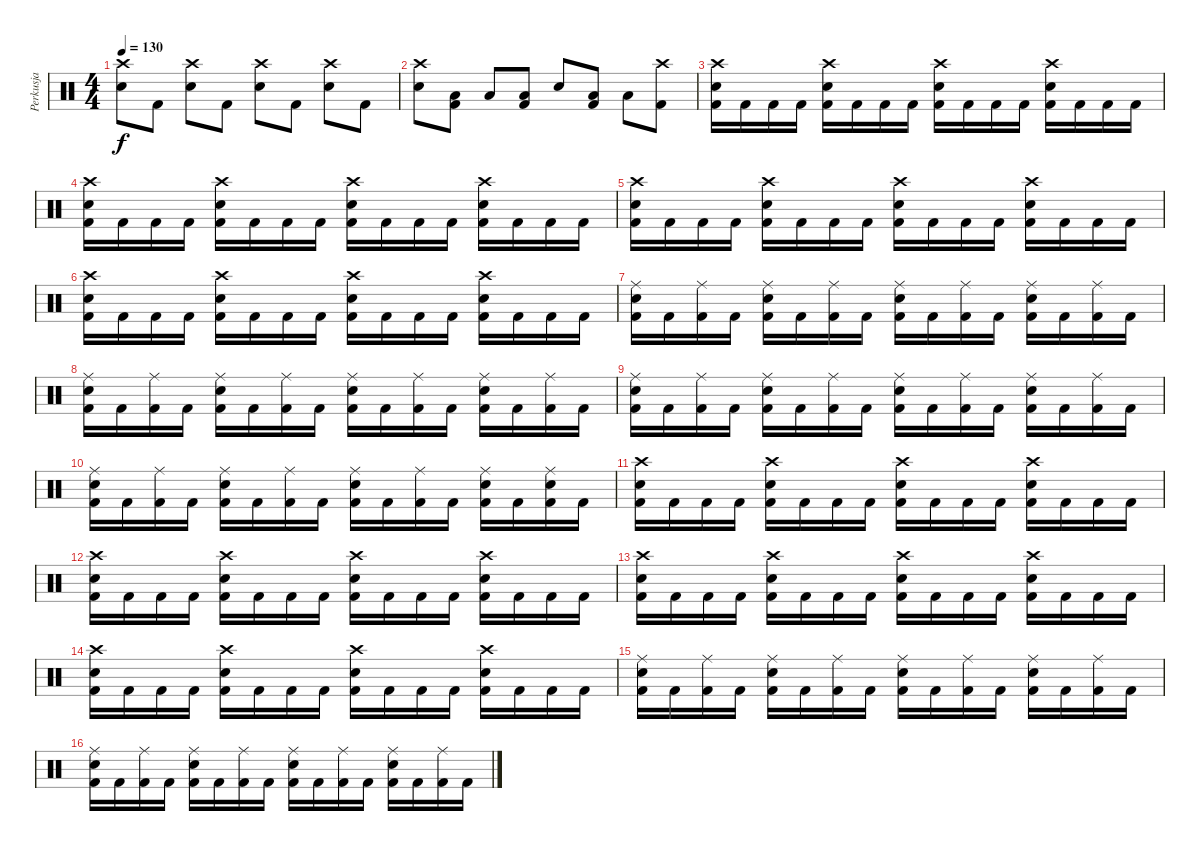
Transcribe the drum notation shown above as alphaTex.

\track ("Perkusja" "Perkusja") {instrument percussion}
\staff {score}
\articulation defaults
\ts (4 4)
\tempo 130
\clef neutral
\ks c
("Crash high (hit)" "Snare (hit) 2").8{dy f} "Kick (hit) 2".8 ("Crash high (hit)" "Snare (hit) 2").8 "Kick (hit) 2".8 ("Crash high (hit)" "Snare (hit) 2").8 "Kick (hit) 2".8 ("Crash high (hit)" "Snare (hit) 2").8 "Kick (hit) 2".8 |
("Crash high (hit)" "Snare (hit) 2").8 ("Low Floor Tom (hit)" "Kick (hit) 2").8 "Low Floor Tom (hit)".8 ("Low Floor Tom (hit)" "Kick (hit) 2").8 "Snare (hit) 2".8 ("Low Floor Tom (hit)" "Kick (hit) 2").8 "Low Floor Tom (hit)".8 ("Crash high (hit)" "Kick (hit) 2").8 |
("Crash high (hit)" "Snare (hit) 2" "Kick (hit) 2").16 "Kick (hit) 2".16 "Kick (hit) 2".16 "Kick (hit) 2".16 ("Crash high (hit)" "Snare (hit) 2" "Kick (hit) 2").16 "Kick (hit) 2".16 "Kick (hit) 2".16 "Kick (hit) 2".16 ("Crash high (hit)" "Snare (hit) 2" "Kick (hit) 2").16 "Kick (hit) 2".16 "Kick (hit) 2".16 "Kick (hit) 2".16 ("Crash high (hit)" "Snare (hit) 2" "Kick (hit) 2").16 "Kick (hit) 2".16 "Kick (hit) 2".16 "Kick (hit) 2".16 |
("Crash high (hit)" "Snare (hit) 2" "Kick (hit) 2").16 "Kick (hit) 2".16 "Kick (hit) 2".16 "Kick (hit) 2".16 ("Crash high (hit)" "Snare (hit) 2" "Kick (hit) 2").16 "Kick (hit) 2".16 "Kick (hit) 2".16 "Kick (hit) 2".16 ("Crash high (hit)" "Snare (hit) 2" "Kick (hit) 2").16 "Kick (hit) 2".16 "Kick (hit) 2".16 "Kick (hit) 2".16 ("Crash high (hit)" "Snare (hit) 2" "Kick (hit) 2").16 "Kick (hit) 2".16 "Kick (hit) 2".16 "Kick (hit) 2".16 |
("Crash high (hit)" "Snare (hit) 2" "Kick (hit) 2").16 "Kick (hit) 2".16 "Kick (hit) 2".16 "Kick (hit) 2".16 ("Crash high (hit)" "Snare (hit) 2" "Kick (hit) 2").16 "Kick (hit) 2".16 "Kick (hit) 2".16 "Kick (hit) 2".16 ("Crash high (hit)" "Snare (hit) 2" "Kick (hit) 2").16 "Kick (hit) 2".16 "Kick (hit) 2".16 "Kick (hit) 2".16 ("Crash high (hit)" "Snare (hit) 2" "Kick (hit) 2").16 "Kick (hit) 2".16 "Kick (hit) 2".16 "Kick (hit) 2".16 |
("Crash high (hit)" "Snare (hit) 2" "Kick (hit) 2").16 "Kick (hit) 2".16 "Kick (hit) 2".16 "Kick (hit) 2".16 ("Crash high (hit)" "Snare (hit) 2" "Kick (hit) 2").16 "Kick (hit) 2".16 "Kick (hit) 2".16 "Kick (hit) 2".16 ("Crash high (hit)" "Snare (hit) 2" "Kick (hit) 2").16 "Kick (hit) 2".16 "Kick (hit) 2".16 "Kick (hit) 2".16 ("Crash high (hit)" "Snare (hit) 2" "Kick (hit) 2").16 "Kick (hit) 2".16 "Kick (hit) 2".16 "Kick (hit) 2".16 |
("Ride (middle)" "Snare (hit) 2" "Kick (hit) 2").16 "Kick (hit) 2".16 ("Ride (middle)" "Kick (hit) 2").16 "Kick (hit) 2".16 ("Ride (middle)" "Snare (hit) 2" "Kick (hit) 2").16 "Kick (hit) 2".16 ("Ride (middle)" "Kick (hit) 2").16 "Kick (hit) 2".16 ("Ride (middle)" "Snare (hit) 2" "Kick (hit) 2").16 "Kick (hit) 2".16 ("Ride (middle)" "Kick (hit) 2").16 "Kick (hit) 2".16 ("Ride (middle)" "Snare (hit) 2" "Kick (hit) 2").16 "Kick (hit) 2".16 ("Ride (middle)" "Kick (hit) 2").16 "Kick (hit) 2".16 |
("Ride (middle)" "Snare (hit) 2" "Kick (hit) 2").16 "Kick (hit) 2".16 ("Ride (middle)" "Kick (hit) 2").16 "Kick (hit) 2".16 ("Ride (middle)" "Snare (hit) 2" "Kick (hit) 2").16 "Kick (hit) 2".16 ("Ride (middle)" "Kick (hit) 2").16 "Kick (hit) 2".16 ("Ride (middle)" "Snare (hit) 2" "Kick (hit) 2").16 "Kick (hit) 2".16 ("Ride (middle)" "Kick (hit) 2").16 "Kick (hit) 2".16 ("Ride (middle)" "Snare (hit) 2" "Kick (hit) 2").16 "Kick (hit) 2".16 ("Ride (middle)" "Kick (hit) 2").16 "Kick (hit) 2".16 |
("Ride (middle)" "Snare (hit) 2" "Kick (hit) 2").16 "Kick (hit) 2".16 ("Ride (middle)" "Kick (hit) 2").16 "Kick (hit) 2".16 ("Ride (middle)" "Snare (hit) 2" "Kick (hit) 2").16 "Kick (hit) 2".16 ("Ride (middle)" "Kick (hit) 2").16 "Kick (hit) 2".16 ("Ride (middle)" "Snare (hit) 2" "Kick (hit) 2").16 "Kick (hit) 2".16 ("Ride (middle)" "Kick (hit) 2").16 "Kick (hit) 2".16 ("Ride (middle)" "Snare (hit) 2" "Kick (hit) 2").16 "Kick (hit) 2".16 ("Ride (middle)" "Kick (hit) 2").16 "Kick (hit) 2".16 |
("Ride (middle)" "Snare (hit) 2" "Kick (hit) 2").16 "Kick (hit) 2".16 ("Ride (middle)" "Kick (hit) 2").16 "Kick (hit) 2".16 ("Ride (middle)" "Snare (hit) 2" "Kick (hit) 2").16 "Kick (hit) 2".16 ("Ride (middle)" "Kick (hit) 2").16 "Kick (hit) 2".16 ("Ride (middle)" "Snare (hit) 2" "Kick (hit) 2").16 "Kick (hit) 2".16 ("Ride (middle)" "Kick (hit) 2").16 "Kick (hit) 2".16 ("Ride (middle)" "Snare (hit) 2" "Kick (hit) 2").16 "Kick (hit) 2".16 ("Ride (middle)" "Snare (hit) 2" "Kick (hit) 2").16 "Kick (hit) 2".16 |
("Crash high (hit)" "Snare (hit) 2" "Kick (hit) 2").16 "Kick (hit) 2".16 "Kick (hit) 2".16 "Kick (hit) 2".16 ("Crash high (hit)" "Snare (hit) 2" "Kick (hit) 2").16 "Kick (hit) 2".16 "Kick (hit) 2".16 "Kick (hit) 2".16 ("Crash high (hit)" "Snare (hit) 2" "Kick (hit) 2").16 "Kick (hit) 2".16 "Kick (hit) 2".16 "Kick (hit) 2".16 ("Crash high (hit)" "Snare (hit) 2" "Kick (hit) 2").16 "Kick (hit) 2".16 "Kick (hit) 2".16 "Kick (hit) 2".16 |
("Crash high (hit)" "Snare (hit) 2" "Kick (hit) 2").16 "Kick (hit) 2".16 "Kick (hit) 2".16 "Kick (hit) 2".16 ("Crash high (hit)" "Snare (hit) 2" "Kick (hit) 2").16 "Kick (hit) 2".16 "Kick (hit) 2".16 "Kick (hit) 2".16 ("Crash high (hit)" "Snare (hit) 2" "Kick (hit) 2").16 "Kick (hit) 2".16 "Kick (hit) 2".16 "Kick (hit) 2".16 ("Crash high (hit)" "Snare (hit) 2" "Kick (hit) 2").16 "Kick (hit) 2".16 "Kick (hit) 2".16 "Kick (hit) 2".16 |
("Crash high (hit)" "Snare (hit) 2" "Kick (hit) 2").16 "Kick (hit) 2".16 "Kick (hit) 2".16 "Kick (hit) 2".16 ("Crash high (hit)" "Snare (hit) 2" "Kick (hit) 2").16 "Kick (hit) 2".16 "Kick (hit) 2".16 "Kick (hit) 2".16 ("Crash high (hit)" "Snare (hit) 2" "Kick (hit) 2").16 "Kick (hit) 2".16 "Kick (hit) 2".16 "Kick (hit) 2".16 ("Crash high (hit)" "Snare (hit) 2" "Kick (hit) 2").16 "Kick (hit) 2".16 "Kick (hit) 2".16 "Kick (hit) 2".16 |
("Crash high (hit)" "Snare (hit) 2" "Kick (hit) 2").16 "Kick (hit) 2".16 "Kick (hit) 2".16 "Kick (hit) 2".16 ("Crash high (hit)" "Snare (hit) 2" "Kick (hit) 2").16 "Kick (hit) 2".16 "Kick (hit) 2".16 "Kick (hit) 2".16 ("Crash high (hit)" "Snare (hit) 2" "Kick (hit) 2").16 "Kick (hit) 2".16 "Kick (hit) 2".16 "Kick (hit) 2".16 ("Crash high (hit)" "Snare (hit) 2" "Kick (hit) 2").16 "Kick (hit) 2".16 "Kick (hit) 2".16 "Kick (hit) 2".16 |
("Ride (middle)" "Snare (hit) 2" "Kick (hit) 2").16 "Kick (hit) 2".16 ("Ride (middle)" "Kick (hit) 2").16 "Kick (hit) 2".16 ("Ride (middle)" "Snare (hit) 2" "Kick (hit) 2").16 "Kick (hit) 2".16 ("Ride (middle)" "Kick (hit) 2").16 "Kick (hit) 2".16 ("Ride (middle)" "Snare (hit) 2" "Kick (hit) 2").16 "Kick (hit) 2".16 ("Ride (middle)" "Kick (hit) 2").16 "Kick (hit) 2".16 ("Ride (middle)" "Snare (hit) 2" "Kick (hit) 2").16 "Kick (hit) 2".16 ("Ride (middle)" "Kick (hit) 2").16 "Kick (hit) 2".16 |
("Ride (middle)" "Snare (hit) 2" "Kick (hit) 2").16 "Kick (hit) 2".16 ("Ride (middle)" "Kick (hit) 2").16 "Kick (hit) 2".16 ("Ride (middle)" "Snare (hit) 2" "Kick (hit) 2").16 "Kick (hit) 2".16 ("Ride (middle)" "Kick (hit) 2").16 "Kick (hit) 2".16 ("Ride (middle)" "Snare (hit) 2" "Kick (hit) 2").16 "Kick (hit) 2".16 ("Ride (middle)" "Kick (hit) 2").16 "Kick (hit) 2".16 ("Ride (middle)" "Snare (hit) 2" "Kick (hit) 2").16 "Kick (hit) 2".16 ("Ride (middle)" "Kick (hit) 2").16 "Kick (hit) 2".16
